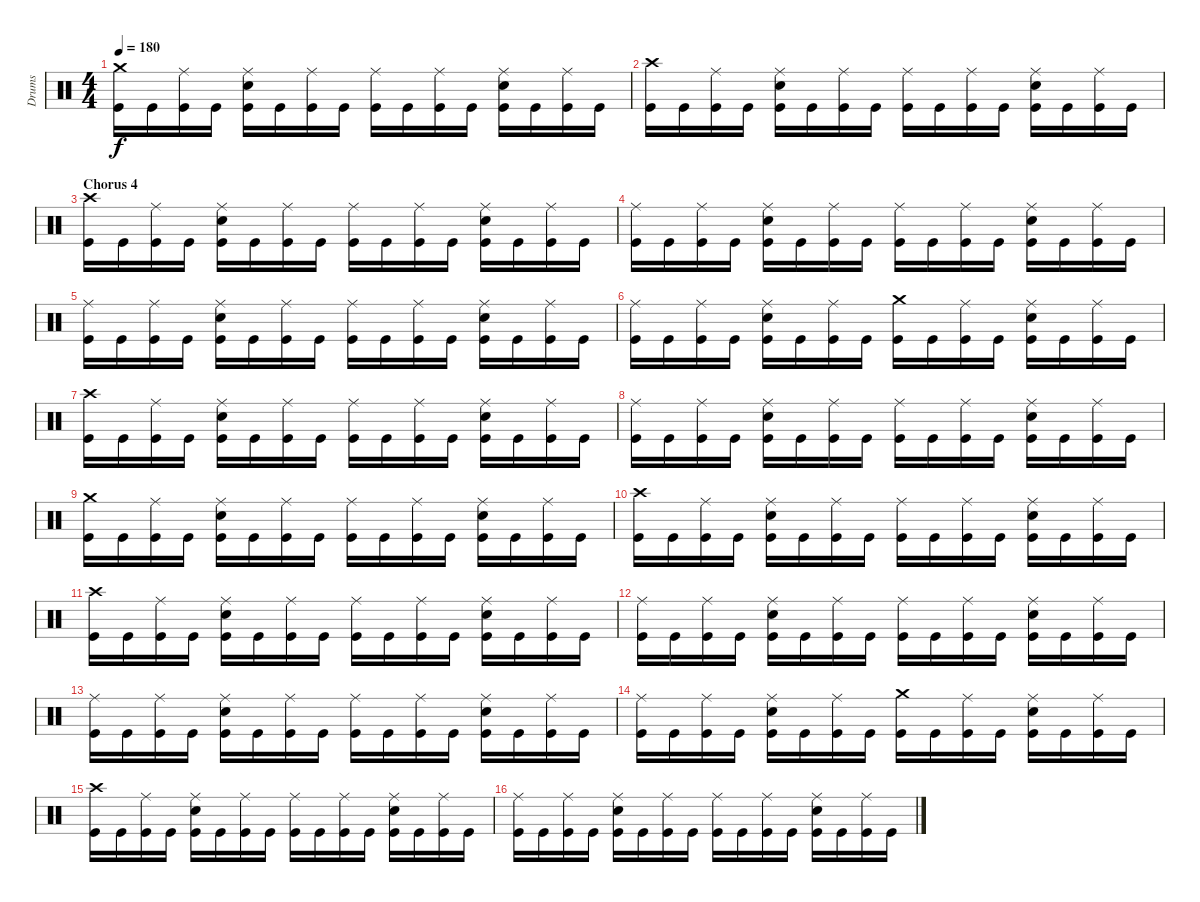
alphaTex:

\track ("Drums" "Drums") {instrument percussion}
\staff {score}
\articulation defaults
\ts (4 4)
\tempo 180
\clef neutral
\ks c
("Crash medium (hit)" "Kick (hit)").16{dy f} "Kick (hit)".16 ("Ride (middle)" "Kick (hit)").16 "Kick (hit)".16 ("Ride (middle)" "Snare (hit) 2" "Kick (hit)").16 "Kick (hit)".16 ("Ride (middle)" "Kick (hit)").16 "Kick (hit)".16 ("Ride (middle)" "Kick (hit)").16 "Kick (hit)".16 ("Ride (middle)" "Kick (hit)").16 "Kick (hit)".16 ("Ride (middle)" "Snare (hit) 2" "Kick (hit)").16 "Kick (hit)".16 ("Ride (middle)" "Kick (hit)").16 "Kick (hit)".16 |
("Crash high (hit)" "Kick (hit)").16 "Kick (hit)".16 ("Ride (middle)" "Kick (hit)").16 "Kick (hit)".16 ("Ride (middle)" "Snare (hit) 2" "Kick (hit)").16 "Kick (hit)".16 ("Ride (middle)" "Kick (hit)").16 "Kick (hit)".16 ("Ride (middle)" "Kick (hit)").16 "Kick (hit)".16 ("Ride (middle)" "Kick (hit)").16 "Kick (hit)".16 ("Ride (middle)" "Snare (hit) 2" "Kick (hit)").16 "Kick (hit)".16 ("Ride (middle)" "Kick (hit)").16 "Kick (hit)".16 |
\section ("" "Chorus 4")
("Crash high (hit)" "Kick (hit)").16 "Kick (hit)".16 ("Ride (middle)" "Kick (hit)").16 "Kick (hit)".16 ("Ride (middle)" "Snare (hit) 2" "Kick (hit)").16 "Kick (hit)".16 ("Ride (middle)" "Kick (hit)").16 "Kick (hit)".16 ("Ride (middle)" "Kick (hit)").16 "Kick (hit)".16 ("Ride (middle)" "Kick (hit)").16 "Kick (hit)".16 ("Ride (middle)" "Snare (hit) 2" "Kick (hit)").16 "Kick (hit)".16 ("Ride (middle)" "Kick (hit)").16 "Kick (hit)".16 |
("Ride (middle)" "Kick (hit)").16 "Kick (hit)".16 ("Ride (middle)" "Kick (hit)").16 "Kick (hit)".16 ("Ride (middle)" "Snare (hit) 2" "Kick (hit)").16 "Kick (hit)".16 ("Ride (middle)" "Kick (hit)").16 "Kick (hit)".16 ("Ride (middle)" "Kick (hit)").16 "Kick (hit)".16 ("Ride (middle)" "Kick (hit)").16 "Kick (hit)".16 ("Ride (middle)" "Snare (hit) 2" "Kick (hit)").16 "Kick (hit)".16 ("Ride (middle)" "Kick (hit)").16 "Kick (hit)".16 |
("Ride (middle)" "Kick (hit)").16 "Kick (hit)".16 ("Ride (middle)" "Kick (hit)").16 "Kick (hit)".16 ("Ride (middle)" "Snare (hit) 2" "Kick (hit)").16 "Kick (hit)".16 ("Ride (middle)" "Kick (hit)").16 "Kick (hit)".16 ("Ride (middle)" "Kick (hit)").16 "Kick (hit)".16 ("Ride (middle)" "Kick (hit)").16 "Kick (hit)".16 ("Ride (middle)" "Snare (hit) 2" "Kick (hit)").16 "Kick (hit)".16 ("Ride (middle)" "Kick (hit)").16 "Kick (hit)".16 |
("Ride (middle)" "Kick (hit)").16 "Kick (hit)".16 ("Ride (middle)" "Kick (hit)").16 "Kick (hit)".16 ("Ride (middle)" "Snare (hit) 2" "Kick (hit)").16 "Kick (hit)".16 ("Ride (middle)" "Kick (hit)").16 "Kick (hit)".16 ("Crash medium (hit)" "Kick (hit)").16 "Kick (hit)".16 ("Ride (middle)" "Kick (hit)").16 "Kick (hit)".16 ("Ride (middle)" "Snare (hit) 2" "Kick (hit)").16 "Kick (hit)".16 ("Ride (middle)" "Kick (hit)").16 "Kick (hit)".16 |
("Crash high (hit)" "Kick (hit)").16 "Kick (hit)".16 ("Ride (middle)" "Kick (hit)").16 "Kick (hit)".16 ("Ride (middle)" "Snare (hit) 2" "Kick (hit)").16 "Kick (hit)".16 ("Ride (middle)" "Kick (hit)").16 "Kick (hit)".16 ("Ride (middle)" "Kick (hit)").16 "Kick (hit)".16 ("Ride (middle)" "Kick (hit)").16 "Kick (hit)".16 ("Ride (middle)" "Snare (hit) 2" "Kick (hit)").16 "Kick (hit)".16 ("Ride (middle)" "Kick (hit)").16 "Kick (hit)".16 |
("Ride (middle)" "Kick (hit)").16 "Kick (hit)".16 ("Ride (middle)" "Kick (hit)").16 "Kick (hit)".16 ("Ride (middle)" "Snare (hit) 2" "Kick (hit)").16 "Kick (hit)".16 ("Ride (middle)" "Kick (hit)").16 "Kick (hit)".16 ("Ride (middle)" "Kick (hit)").16 "Kick (hit)".16 ("Ride (middle)" "Kick (hit)").16 "Kick (hit)".16 ("Ride (middle)" "Snare (hit) 2" "Kick (hit)").16 "Kick (hit)".16 ("Ride (middle)" "Kick (hit)").16 "Kick (hit)".16 |
("Crash medium (hit)" "Kick (hit)").16 "Kick (hit)".16 ("Ride (middle)" "Kick (hit)").16 "Kick (hit)".16 ("Ride (middle)" "Snare (hit) 2" "Kick (hit)").16 "Kick (hit)".16 ("Ride (middle)" "Kick (hit)").16 "Kick (hit)".16 ("Ride (middle)" "Kick (hit)").16 "Kick (hit)".16 ("Ride (middle)" "Kick (hit)").16 "Kick (hit)".16 ("Ride (middle)" "Snare (hit) 2" "Kick (hit)").16 "Kick (hit)".16 ("Ride (middle)" "Kick (hit)").16 "Kick (hit)".16 |
("Crash high (hit)" "Kick (hit)").16 "Kick (hit)".16 ("Ride (middle)" "Kick (hit)").16 "Kick (hit)".16 ("Ride (middle)" "Snare (hit) 2" "Kick (hit)").16 "Kick (hit)".16 ("Ride (middle)" "Kick (hit)").16 "Kick (hit)".16 ("Ride (middle)" "Kick (hit)").16 "Kick (hit)".16 ("Ride (middle)" "Kick (hit)").16 "Kick (hit)".16 ("Ride (middle)" "Snare (hit) 2" "Kick (hit)").16 "Kick (hit)".16 ("Ride (middle)" "Kick (hit)").16 "Kick (hit)".16 |
("Crash high (hit)" "Kick (hit)").16 "Kick (hit)".16 ("Ride (middle)" "Kick (hit)").16 "Kick (hit)".16 ("Ride (middle)" "Snare (hit) 2" "Kick (hit)").16 "Kick (hit)".16 ("Ride (middle)" "Kick (hit)").16 "Kick (hit)".16 ("Ride (middle)" "Kick (hit)").16 "Kick (hit)".16 ("Ride (middle)" "Kick (hit)").16 "Kick (hit)".16 ("Ride (middle)" "Snare (hit) 2" "Kick (hit)").16 "Kick (hit)".16 ("Ride (middle)" "Kick (hit)").16 "Kick (hit)".16 |
("Ride (middle)" "Kick (hit)").16 "Kick (hit)".16 ("Ride (middle)" "Kick (hit)").16 "Kick (hit)".16 ("Ride (middle)" "Snare (hit) 2" "Kick (hit)").16 "Kick (hit)".16 ("Ride (middle)" "Kick (hit)").16 "Kick (hit)".16 ("Ride (middle)" "Kick (hit)").16 "Kick (hit)".16 ("Ride (middle)" "Kick (hit)").16 "Kick (hit)".16 ("Ride (middle)" "Snare (hit) 2" "Kick (hit)").16 "Kick (hit)".16 ("Ride (middle)" "Kick (hit)").16 "Kick (hit)".16 |
("Ride (middle)" "Kick (hit)").16 "Kick (hit)".16 ("Ride (middle)" "Kick (hit)").16 "Kick (hit)".16 ("Ride (middle)" "Snare (hit) 2" "Kick (hit)").16 "Kick (hit)".16 ("Ride (middle)" "Kick (hit)").16 "Kick (hit)".16 ("Ride (middle)" "Kick (hit)").16 "Kick (hit)".16 ("Ride (middle)" "Kick (hit)").16 "Kick (hit)".16 ("Ride (middle)" "Snare (hit) 2" "Kick (hit)").16 "Kick (hit)".16 ("Ride (middle)" "Kick (hit)").16 "Kick (hit)".16 |
("Ride (middle)" "Kick (hit)").16 "Kick (hit)".16 ("Ride (middle)" "Kick (hit)").16 "Kick (hit)".16 ("Ride (middle)" "Snare (hit) 2" "Kick (hit)").16 "Kick (hit)".16 ("Ride (middle)" "Kick (hit)").16 "Kick (hit)".16 ("Crash medium (hit)" "Kick (hit)").16 "Kick (hit)".16 ("Ride (middle)" "Kick (hit)").16 "Kick (hit)".16 ("Ride (middle)" "Snare (hit) 2" "Kick (hit)").16 "Kick (hit)".16 ("Ride (middle)" "Kick (hit)").16 "Kick (hit)".16 |
("Crash high (hit)" "Kick (hit)").16 "Kick (hit)".16 ("Ride (middle)" "Kick (hit)").16 "Kick (hit)".16 ("Ride (middle)" "Snare (hit) 2" "Kick (hit)").16 "Kick (hit)".16 ("Ride (middle)" "Kick (hit)").16 "Kick (hit)".16 ("Ride (middle)" "Kick (hit)").16 "Kick (hit)".16 ("Ride (middle)" "Kick (hit)").16 "Kick (hit)".16 ("Ride (middle)" "Snare (hit) 2" "Kick (hit)").16 "Kick (hit)".16 ("Ride (middle)" "Kick (hit)").16 "Kick (hit)".16 |
("Ride (middle)" "Kick (hit)").16 "Kick (hit)".16 ("Ride (middle)" "Kick (hit)").16 "Kick (hit)".16 ("Ride (middle)" "Snare (hit) 2" "Kick (hit)").16 "Kick (hit)".16 ("Ride (middle)" "Kick (hit)").16 "Kick (hit)".16 ("Ride (middle)" "Kick (hit)").16 "Kick (hit)".16 ("Ride (middle)" "Kick (hit)").16 "Kick (hit)".16 ("Ride (middle)" "Snare (hit) 2" "Kick (hit)").16 "Kick (hit)".16 ("Ride (middle)" "Kick (hit)").16 "Kick (hit)".16
